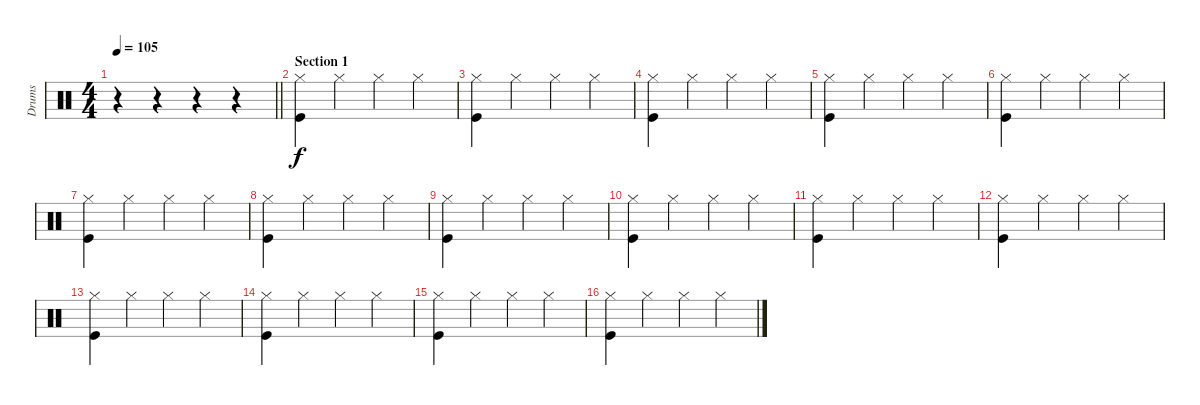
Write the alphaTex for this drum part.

\track ("Drums" "Drums") {instrument percussion}
\staff {score}
\articulation defaults
\ts (4 4)
\tempo 105
\clef neutral
\barLineRight lightlight
\ks c
r.4{dy f} r.4 r.4 r.4 |
\section ("" "Section 1")
("Hi-Hat (closed)" "Kick (hit)").4 "Hi-Hat (closed)".4 "Hi-Hat (closed)".4 "Hi-Hat (closed)".4 |
("Hi-Hat (closed)" "Kick (hit)").4 "Hi-Hat (closed)".4 "Hi-Hat (closed)".4 "Hi-Hat (closed)".4 |
("Hi-Hat (closed)" "Kick (hit)").4 "Hi-Hat (closed)".4 "Hi-Hat (closed)".4 "Hi-Hat (closed)".4 |
("Hi-Hat (closed)" "Kick (hit)").4 "Hi-Hat (closed)".4 "Hi-Hat (closed)".4 "Hi-Hat (closed)".4 |
("Hi-Hat (closed)" "Kick (hit)").4 "Hi-Hat (closed)".4 "Hi-Hat (closed)".4 "Hi-Hat (closed)".4 |
("Hi-Hat (closed)" "Kick (hit)").4 "Hi-Hat (closed)".4 "Hi-Hat (closed)".4 "Hi-Hat (closed)".4 |
("Hi-Hat (closed)" "Kick (hit)").4 "Hi-Hat (closed)".4 "Hi-Hat (closed)".4 "Hi-Hat (closed)".4 |
("Hi-Hat (closed)" "Kick (hit)").4 "Hi-Hat (closed)".4 "Hi-Hat (closed)".4 "Hi-Hat (closed)".4 |
("Hi-Hat (closed)" "Kick (hit)").4 "Hi-Hat (closed)".4 "Hi-Hat (closed)".4 "Hi-Hat (closed)".4 |
("Hi-Hat (closed)" "Kick (hit)").4 "Hi-Hat (closed)".4 "Hi-Hat (closed)".4 "Hi-Hat (closed)".4 |
("Hi-Hat (closed)" "Kick (hit)").4 "Hi-Hat (closed)".4 "Hi-Hat (closed)".4 "Hi-Hat (closed)".4 |
("Hi-Hat (closed)" "Kick (hit)").4 "Hi-Hat (closed)".4 "Hi-Hat (closed)".4 "Hi-Hat (closed)".4 |
("Hi-Hat (closed)" "Kick (hit)").4 "Hi-Hat (closed)".4 "Hi-Hat (closed)".4 "Hi-Hat (closed)".4 |
("Hi-Hat (closed)" "Kick (hit)").4 "Hi-Hat (closed)".4 "Hi-Hat (closed)".4 "Hi-Hat (closed)".4 |
("Hi-Hat (closed)" "Kick (hit)").4 "Hi-Hat (closed)".4 "Hi-Hat (closed)".4 "Hi-Hat (closed)".4
